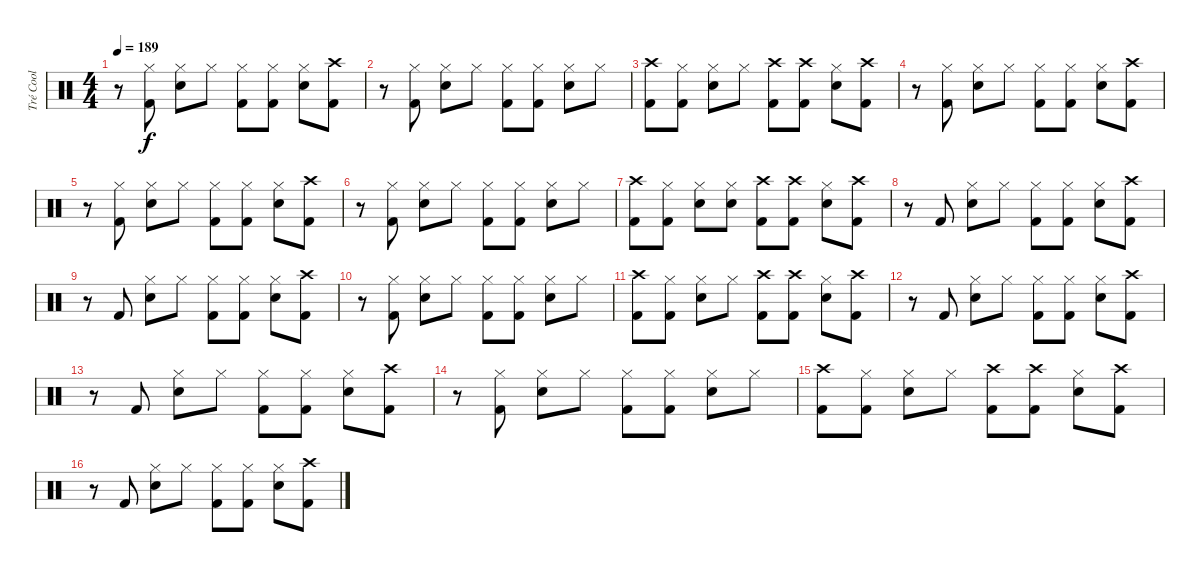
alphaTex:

\track ("Tré Cool" "Tré Cool") {instrument percussion}
\staff {score}
\articulation defaults
\ts (4 4)
\tempo 189
\clef neutral
\ks c
r.8{dy f} ("Hi-Hat (closed)" "Kick (hit) 2").8 ("Hi-Hat (closed)" "Snare (hit) 2").8 "Hi-Hat (closed)".8 ("Hi-Hat (closed)" "Kick (hit) 2").8 ("Hi-Hat (closed)" "Kick (hit) 2").8 ("Hi-Hat (closed)" "Snare (hit) 2").8 ("Crash high (hit)" "Kick (hit) 2").8 |
r.8 ("Hi-Hat (closed)" "Kick (hit) 2").8 ("Hi-Hat (closed)" "Snare (hit) 2").8 "Hi-Hat (closed)".8 ("Hi-Hat (closed)" "Kick (hit) 2").8 ("Hi-Hat (closed)" "Kick (hit) 2").8 ("Hi-Hat (closed)" "Snare (hit) 2").8 "Hi-Hat (closed)".8 |
("Crash high (hit)" "Kick (hit) 2").8 ("Hi-Hat (closed)" "Kick (hit) 2").8 ("Hi-Hat (closed)" "Snare (hit) 2").8 "Hi-Hat (closed)".8 ("Crash high (hit)" "Kick (hit) 2").8 ("Crash high (hit)" "Kick (hit) 2").8 ("Hi-Hat (closed)" "Snare (hit) 2").8 ("Crash high (hit)" "Kick (hit) 2").8 |
r.8 ("Hi-Hat (closed)" "Kick (hit) 2").8 ("Hi-Hat (closed)" "Snare (hit) 2").8 "Hi-Hat (closed)".8 ("Hi-Hat (closed)" "Kick (hit) 2").8 ("Hi-Hat (closed)" "Kick (hit) 2").8 ("Hi-Hat (closed)" "Snare (hit) 2").8 ("Crash high (hit)" "Kick (hit) 2").8 |
r.8 ("Hi-Hat (closed)" "Kick (hit) 2").8 ("Hi-Hat (closed)" "Snare (hit) 2").8 "Hi-Hat (closed)".8 ("Hi-Hat (closed)" "Kick (hit) 2").8 ("Hi-Hat (closed)" "Kick (hit) 2").8 ("Hi-Hat (closed)" "Snare (hit) 2").8 ("Crash high (hit)" "Kick (hit) 2").8 |
r.8 ("Hi-Hat (closed)" "Kick (hit) 2").8 ("Hi-Hat (closed)" "Snare (hit) 2").8 "Hi-Hat (closed)".8 ("Hi-Hat (closed)" "Kick (hit) 2").8 ("Hi-Hat (closed)" "Kick (hit) 2").8 ("Hi-Hat (closed)" "Snare (hit) 2").8 "Hi-Hat (closed)".8 |
("Crash high (hit)" "Kick (hit) 2").8 ("Hi-Hat (closed)" "Kick (hit) 2").8 ("Hi-Hat (closed)" "Snare (hit) 2").8 ("Hi-Hat (closed)" "Snare (hit) 2").8 ("Crash high (hit)" "Kick (hit) 2").8 ("Crash high (hit)" "Kick (hit) 2").8 ("Hi-Hat (closed)" "Snare (hit) 2").8 ("Crash high (hit)" "Kick (hit) 2").8 |
r.8 "Kick (hit) 2".8 ("Hi-Hat (closed)" "Snare (hit) 2").8 "Hi-Hat (closed)".8 ("Hi-Hat (closed)" "Kick (hit) 2").8 ("Hi-Hat (closed)" "Kick (hit) 2").8 ("Hi-Hat (closed)" "Snare (hit) 2").8 ("Crash high (hit)" "Kick (hit) 2").8 |
r.8 "Kick (hit) 2".8 ("Hi-Hat (closed)" "Snare (hit) 2").8 "Hi-Hat (closed)".8 ("Hi-Hat (closed)" "Kick (hit) 2").8 ("Hi-Hat (closed)" "Kick (hit) 2").8 ("Hi-Hat (closed)" "Snare (hit) 2").8 ("Crash high (hit)" "Kick (hit) 2").8 |
r.8 ("Hi-Hat (closed)" "Kick (hit) 2").8 ("Hi-Hat (closed)" "Snare (hit) 2").8 "Hi-Hat (closed)".8 ("Hi-Hat (closed)" "Kick (hit) 2").8 ("Hi-Hat (closed)" "Kick (hit) 2").8 ("Hi-Hat (closed)" "Snare (hit) 2").8 "Hi-Hat (closed)".8 |
("Crash high (hit)" "Kick (hit) 2").8 ("Hi-Hat (closed)" "Kick (hit) 2").8 ("Hi-Hat (closed)" "Snare (hit) 2").8 "Hi-Hat (closed)".8 ("Crash high (hit)" "Kick (hit) 2").8 ("Crash high (hit)" "Kick (hit) 2").8 ("Hi-Hat (closed)" "Snare (hit) 2").8 ("Crash high (hit)" "Kick (hit) 2").8 |
r.8 "Kick (hit) 2".8 ("Hi-Hat (closed)" "Snare (hit) 2").8 "Hi-Hat (closed)".8 ("Hi-Hat (closed)" "Kick (hit) 2").8 ("Hi-Hat (closed)" "Kick (hit) 2").8 ("Hi-Hat (closed)" "Snare (hit) 2").8 ("Crash high (hit)" "Kick (hit) 2").8 |
r.8 "Kick (hit) 2".8 ("Hi-Hat (closed)" "Snare (hit) 2").8 "Hi-Hat (closed)".8 ("Hi-Hat (closed)" "Kick (hit) 2").8 ("Hi-Hat (closed)" "Kick (hit) 2").8 ("Hi-Hat (closed)" "Snare (hit) 2").8 ("Crash high (hit)" "Kick (hit) 2").8 |
r.8 ("Hi-Hat (closed)" "Kick (hit) 2").8 ("Hi-Hat (closed)" "Snare (hit) 2").8 "Hi-Hat (closed)".8 ("Hi-Hat (closed)" "Kick (hit) 2").8 ("Hi-Hat (closed)" "Kick (hit) 2").8 ("Hi-Hat (closed)" "Snare (hit) 2").8 "Hi-Hat (closed)".8 |
("Crash high (hit)" "Kick (hit) 2").8 ("Hi-Hat (closed)" "Kick (hit) 2").8 ("Hi-Hat (closed)" "Snare (hit) 2").8 "Hi-Hat (closed)".8 ("Crash high (hit)" "Kick (hit) 2").8 ("Crash high (hit)" "Kick (hit) 2").8 ("Hi-Hat (closed)" "Snare (hit) 2").8 ("Crash high (hit)" "Kick (hit) 2").8 |
r.8 "Kick (hit) 2".8 ("Hi-Hat (closed)" "Snare (hit) 2").8 "Hi-Hat (closed)".8 ("Hi-Hat (closed)" "Kick (hit) 2").8 ("Hi-Hat (closed)" "Kick (hit) 2").8 ("Hi-Hat (closed)" "Snare (hit) 2").8 ("Crash high (hit)" "Kick (hit) 2").8
